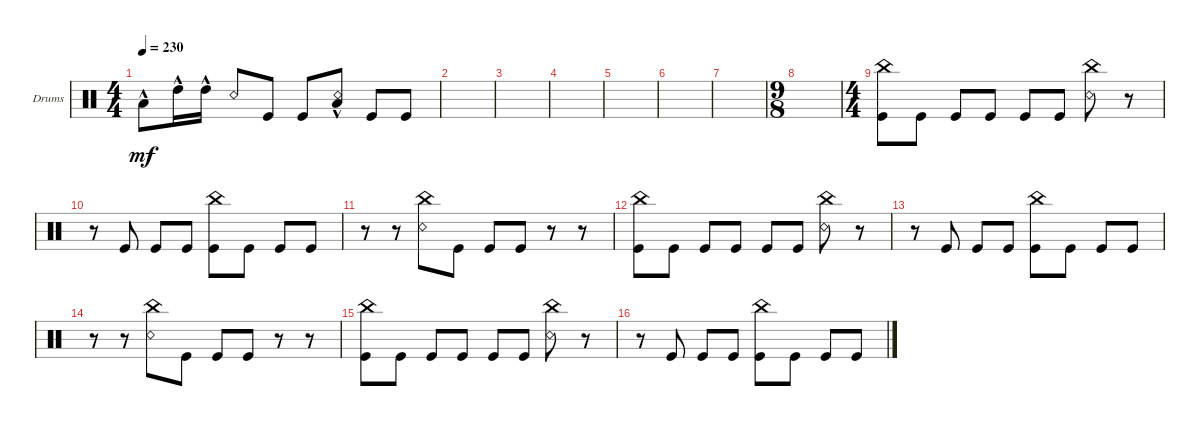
\bracketExtendMode groupsimilarinstruments
\firstSystemTrackNameOrientation horizontal
\otherSystemsTrackNameOrientation horizontal
\track ("Drumkit" "Drums") {solo instrument percussion}
\staff {score}
\articulation defaults
\ts (4 4)
\tempo 230
\clef neutral
\ks c "Low Tom (hit)"{hac}.8{dy mf} "High Tom (hit)"{hac}.16 "High Tom (hit)"{hac}.16 "Snare (rim shot)".8 "Kick (hit)".8 "Kick (hit)".8
("Low Tom (hit)"{hac} "Snare (rim shot)").8 "Kick (hit)".8 "Kick (hit)".8 |
|
|
|
|
|
|
\ts (9 8)
|
\ts (4 4)
("Kick (hit)" "China (hit)").8 "Kick (hit)".8 "Kick (hit)".8 "Kick (hit)".8 "Kick (hit)".8 "Kick (hit)".8 ("Snare (rim shot)" "China (hit)").8 r.8 |
r.8 "Kick (hit)".8 "Kick (hit)".8 "Kick (hit)".8 ("Kick (hit)" "China (hit)").8 "Kick (hit)".8 "Kick (hit)".8 "Kick (hit)".8 |
r.8 r.8 ("Snare (rim shot)" "China (hit)").8 "Kick (hit)".8 "Kick (hit)".8 "Kick (hit)".8 r.8 r.8 |
("Kick (hit)" "China (hit)").8 "Kick (hit)".8 "Kick (hit)".8 "Kick (hit)".8 "Kick (hit)".8 "Kick (hit)".8 ("Snare (rim shot)" "China (hit)").8 r.8 |
r.8 "Kick (hit)".8 "Kick (hit)".8 "Kick (hit)".8 ("Kick (hit)" "China (hit)").8 "Kick (hit)".8 "Kick (hit)".8 "Kick (hit)".8 |
r.8 r.8 ("Snare (rim shot)" "China (hit)").8 "Kick (hit)".8 "Kick (hit)".8 "Kick (hit)".8 r.8 r.8 |
("Kick (hit)" "China (hit)").8 "Kick (hit)".8 "Kick (hit)".8 "Kick (hit)".8 "Kick (hit)".8 "Kick (hit)".8 ("Snare (rim shot)" "China (hit)").8 r.8 |
r.8 "Kick (hit)".8 "Kick (hit)".8 "Kick (hit)".8 ("Kick (hit)" "China (hit)").8 "Kick (hit)".8 "Kick (hit)".8 "Kick (hit)".8
